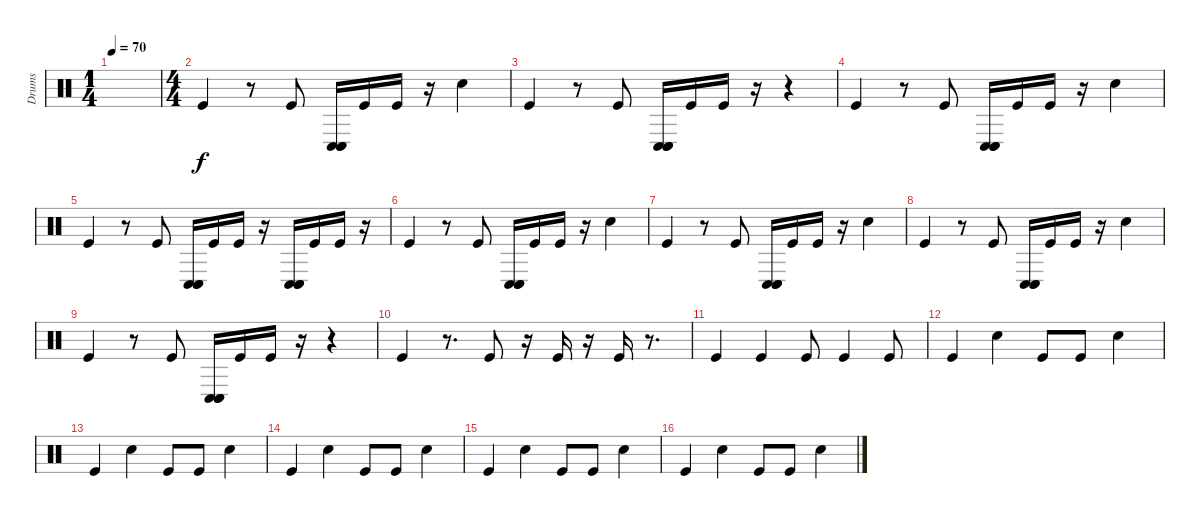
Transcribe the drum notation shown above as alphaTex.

\track ("Drums" "Drums") {instrument percussion}
\staff {score}
\articulation defaults
\ts (1 4)
\tempo 70
\clef neutral
\ks c
|
\ts (4 4)
"Kick (hit)".4 r.8 "Kick (hit)".8 ("Conga low (hit)" "Conga low (hit)" "Conga low (hit)").16 "Kick (hit)".16 "Kick (hit)".16 r.16 "Snare (hit) 2".4 |
"Kick (hit)".4 r.8 "Kick (hit)".8 ("Conga low (hit)" "Conga low (hit)" "Conga low (hit)").16 "Kick (hit)".16 "Kick (hit)".16 r.16 r.4 |
"Kick (hit)".4 r.8 "Kick (hit)".8 ("Conga low (hit)" "Conga low (hit)" "Conga low (hit)").16 "Kick (hit)".16 "Kick (hit)".16 r.16 "Snare (hit) 2".4 |
"Kick (hit)".4 r.8 "Kick (hit)".8 ("Conga low (hit)" "Conga low (hit)" "Conga low (hit)").16 "Kick (hit)".16 "Kick (hit)".16 r.16 ("Conga low (hit)" "Conga low (hit)" "Conga low (hit)").16 "Kick (hit)".16 "Kick (hit)".16 r.16 |
"Kick (hit)".4 r.8 "Kick (hit)".8 ("Conga low (hit)" "Conga low (hit)" "Conga low (hit)").16 "Kick (hit)".16 "Kick (hit)".16 r.16 "Snare (hit) 2".4 |
"Kick (hit)".4 r.8 "Kick (hit)".8 ("Conga low (hit)" "Conga low (hit)" "Conga low (hit)").16 "Kick (hit)".16 "Kick (hit)".16 r.16 "Snare (hit) 2".4 |
"Kick (hit)".4 r.8 "Kick (hit)".8 ("Conga low (hit)" "Conga low (hit)" "Conga low (hit)").16 "Kick (hit)".16 "Kick (hit)".16 r.16 "Snare (hit) 2".4 |
"Kick (hit)".4 r.8 "Kick (hit)".8 ("Conga low (hit)" "Conga low (hit)" "Conga low (hit)").16 "Kick (hit)".16 "Kick (hit)".16 r.16 r.4 |
"Kick (hit)".4 r.8{d} "Kick (hit)".8 r.16 "Kick (hit)".16 r.16 "Kick (hit)".16 r.8{d} |
"Kick (hit)".4 "Kick (hit)".4 "Kick (hit)".8 "Kick (hit)".4 "Kick (hit)".8 |
"Kick (hit)".4 "Snare (hit) 2".4 "Kick (hit)".8 "Kick (hit)".8 "Snare (hit) 2".4 |
"Kick (hit)".4 "Snare (hit) 2".4 "Kick (hit)".8 "Kick (hit)".8 "Snare (hit) 2".4 |
"Kick (hit)".4 "Snare (hit) 2".4 "Kick (hit)".8 "Kick (hit)".8 "Snare (hit) 2".4 |
"Kick (hit)".4 "Snare (hit) 2".4 "Kick (hit)".8 "Kick (hit)".8 "Snare (hit) 2".4 |
"Kick (hit)".4 "Snare (hit) 2".4 "Kick (hit)".8 "Kick (hit)".8 "Snare (hit) 2".4
